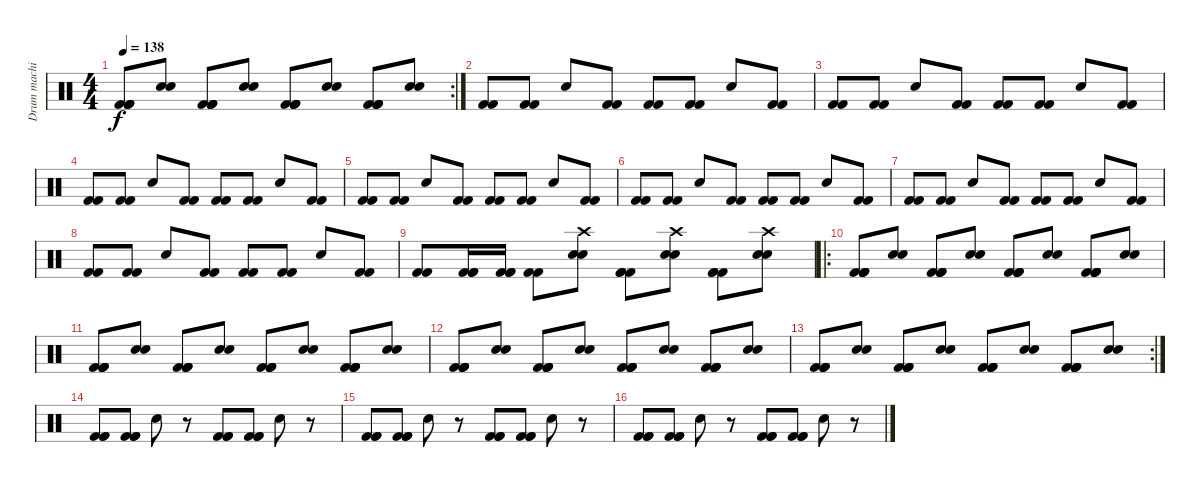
\track ("Drum machine" "Drum machi") {instrument percussion}
\staff {score}
\articulation defaults
\rc 2
\ts (4 4)
\tempo 138
\clef neutral
\ks c
("Kick (hit) 2" "Kick (hit) 2" "Kick (hit) 2" "Kick (hit) 2").8{dy f} ("Electric Snare (hit)" "Electric Snare (hit)").8 ("Kick (hit) 2" "Kick (hit) 2" "Kick (hit) 2" "Kick (hit) 2").8 ("Electric Snare (hit)" "Electric Snare (hit)").8 ("Kick (hit) 2" "Kick (hit) 2" "Kick (hit) 2" "Kick (hit) 2").8 ("Electric Snare (hit)" "Electric Snare (hit)").8 ("Kick (hit) 2" "Kick (hit) 2" "Kick (hit) 2" "Kick (hit) 2").8 ("Electric Snare (hit)" "Electric Snare (hit)").8 |
("Kick (hit) 2" "Kick (hit) 2").8 ("Kick (hit) 2" "Kick (hit) 2").8 "Electric Snare (hit)".8 ("Kick (hit) 2" "Kick (hit) 2").8 ("Kick (hit) 2" "Kick (hit) 2").8 ("Kick (hit) 2" "Kick (hit) 2").8 "Electric Snare (hit)".8 ("Kick (hit) 2" "Kick (hit) 2").8 |
("Kick (hit) 2" "Kick (hit) 2").8 ("Kick (hit) 2" "Kick (hit) 2").8 "Electric Snare (hit)".8 ("Kick (hit) 2" "Kick (hit) 2").8 ("Kick (hit) 2" "Kick (hit) 2").8 ("Kick (hit) 2" "Kick (hit) 2").8 "Electric Snare (hit)".8 ("Kick (hit) 2" "Kick (hit) 2").8 |
("Kick (hit) 2" "Kick (hit) 2").8 ("Kick (hit) 2" "Kick (hit) 2").8 "Electric Snare (hit)".8 ("Kick (hit) 2" "Kick (hit) 2").8 ("Kick (hit) 2" "Kick (hit) 2").8 ("Kick (hit) 2" "Kick (hit) 2").8 "Electric Snare (hit)".8 ("Kick (hit) 2" "Kick (hit) 2").8 |
("Kick (hit) 2" "Kick (hit) 2").8 ("Kick (hit) 2" "Kick (hit) 2").8 "Electric Snare (hit)".8 ("Kick (hit) 2" "Kick (hit) 2").8 ("Kick (hit) 2" "Kick (hit) 2").8 ("Kick (hit) 2" "Kick (hit) 2").8 "Electric Snare (hit)".8 ("Kick (hit) 2" "Kick (hit) 2").8 |
("Kick (hit) 2" "Kick (hit) 2").8 ("Kick (hit) 2" "Kick (hit) 2").8 "Electric Snare (hit)".8 ("Kick (hit) 2" "Kick (hit) 2").8 ("Kick (hit) 2" "Kick (hit) 2").8 ("Kick (hit) 2" "Kick (hit) 2").8 "Electric Snare (hit)".8 ("Kick (hit) 2" "Kick (hit) 2").8 |
("Kick (hit) 2" "Kick (hit) 2").8 ("Kick (hit) 2" "Kick (hit) 2").8 "Electric Snare (hit)".8 ("Kick (hit) 2" "Kick (hit) 2").8 ("Kick (hit) 2" "Kick (hit) 2").8 ("Kick (hit) 2" "Kick (hit) 2").8 "Electric Snare (hit)".8 ("Kick (hit) 2" "Kick (hit) 2").8 |
("Kick (hit) 2" "Kick (hit) 2").8 ("Kick (hit) 2" "Kick (hit) 2").8 "Electric Snare (hit)".8 ("Kick (hit) 2" "Kick (hit) 2").8 ("Kick (hit) 2" "Kick (hit) 2").8 ("Kick (hit) 2" "Kick (hit) 2").8 "Electric Snare (hit)".8 ("Kick (hit) 2" "Kick (hit) 2").8 |
("Kick (hit) 2" "Kick (hit) 2").8 ("Kick (hit) 2" "Kick (hit) 2" "Kick (hit) 2").16 ("Kick (hit) 2" "Kick (hit) 2" "Kick (hit) 2").16 ("Kick (hit) 2" "Kick (hit) 2").8 ("Electric Snare (hit)" "Electric Snare (hit)" "Crash high (hit)").8 ("Kick (hit) 2" "Kick (hit) 2" "Kick (hit) 2").8 ("Electric Snare (hit)" "Electric Snare (hit)" "Crash high (hit)").8 ("Kick (hit) 2" "Kick (hit) 2" "Kick (hit) 2").8 ("Electric Snare (hit)" "Electric Snare (hit)" "Crash high (hit)").8 |
\ro
("Kick (hit) 2" "Kick (hit) 2" "Kick (hit) 2" "Kick (hit) 2").8 ("Electric Snare (hit)" "Electric Snare (hit)").8 ("Kick (hit) 2" "Kick (hit) 2" "Kick (hit) 2" "Kick (hit) 2").8 ("Electric Snare (hit)" "Electric Snare (hit)").8 ("Kick (hit) 2" "Kick (hit) 2" "Kick (hit) 2" "Kick (hit) 2").8 ("Electric Snare (hit)" "Electric Snare (hit)").8 ("Kick (hit) 2" "Kick (hit) 2" "Kick (hit) 2" "Kick (hit) 2").8 ("Electric Snare (hit)" "Electric Snare (hit)").8 |
("Kick (hit) 2" "Kick (hit) 2" "Kick (hit) 2" "Kick (hit) 2").8 ("Electric Snare (hit)" "Electric Snare (hit)").8 ("Kick (hit) 2" "Kick (hit) 2" "Kick (hit) 2" "Kick (hit) 2").8 ("Electric Snare (hit)" "Electric Snare (hit)").8 ("Kick (hit) 2" "Kick (hit) 2" "Kick (hit) 2" "Kick (hit) 2").8 ("Electric Snare (hit)" "Electric Snare (hit)").8 ("Kick (hit) 2" "Kick (hit) 2" "Kick (hit) 2" "Kick (hit) 2").8 ("Electric Snare (hit)" "Electric Snare (hit)").8 |
("Kick (hit) 2" "Kick (hit) 2" "Kick (hit) 2" "Kick (hit) 2").8 ("Electric Snare (hit)" "Electric Snare (hit)").8 ("Kick (hit) 2" "Kick (hit) 2" "Kick (hit) 2" "Kick (hit) 2").8 ("Electric Snare (hit)" "Electric Snare (hit)").8 ("Kick (hit) 2" "Kick (hit) 2" "Kick (hit) 2" "Kick (hit) 2").8 ("Electric Snare (hit)" "Electric Snare (hit)").8 ("Kick (hit) 2" "Kick (hit) 2" "Kick (hit) 2" "Kick (hit) 2").8 ("Electric Snare (hit)" "Electric Snare (hit)").8 |
\rc 2
("Kick (hit) 2" "Kick (hit) 2" "Kick (hit) 2" "Kick (hit) 2").8 ("Electric Snare (hit)" "Electric Snare (hit)").8 ("Kick (hit) 2" "Kick (hit) 2" "Kick (hit) 2" "Kick (hit) 2").8 ("Electric Snare (hit)" "Electric Snare (hit)").8 ("Kick (hit) 2" "Kick (hit) 2" "Kick (hit) 2" "Kick (hit) 2").8 ("Electric Snare (hit)" "Electric Snare (hit)").8 ("Kick (hit) 2" "Kick (hit) 2" "Kick (hit) 2" "Kick (hit) 2").8 ("Electric Snare (hit)" "Electric Snare (hit)").8 |
("Kick (hit) 2" "Kick (hit) 2" "Kick (hit) 2").8 ("Kick (hit) 2" "Kick (hit) 2" "Kick (hit) 2").8 "Electric Snare (hit)".8 r.8 ("Kick (hit) 2" "Kick (hit) 2" "Kick (hit) 2").8 ("Kick (hit) 2" "Kick (hit) 2" "Kick (hit) 2").8 "Electric Snare (hit)".8 r.8 |
("Kick (hit) 2" "Kick (hit) 2" "Kick (hit) 2").8 ("Kick (hit) 2" "Kick (hit) 2" "Kick (hit) 2").8 "Electric Snare (hit)".8 r.8 ("Kick (hit) 2" "Kick (hit) 2" "Kick (hit) 2").8 ("Kick (hit) 2" "Kick (hit) 2" "Kick (hit) 2").8 "Electric Snare (hit)".8 r.8 |
("Kick (hit) 2" "Kick (hit) 2" "Kick (hit) 2").8 ("Kick (hit) 2" "Kick (hit) 2" "Kick (hit) 2").8 "Electric Snare (hit)".8 r.8 ("Kick (hit) 2" "Kick (hit) 2" "Kick (hit) 2").8 ("Kick (hit) 2" "Kick (hit) 2" "Kick (hit) 2").8 "Electric Snare (hit)".8 r.8
